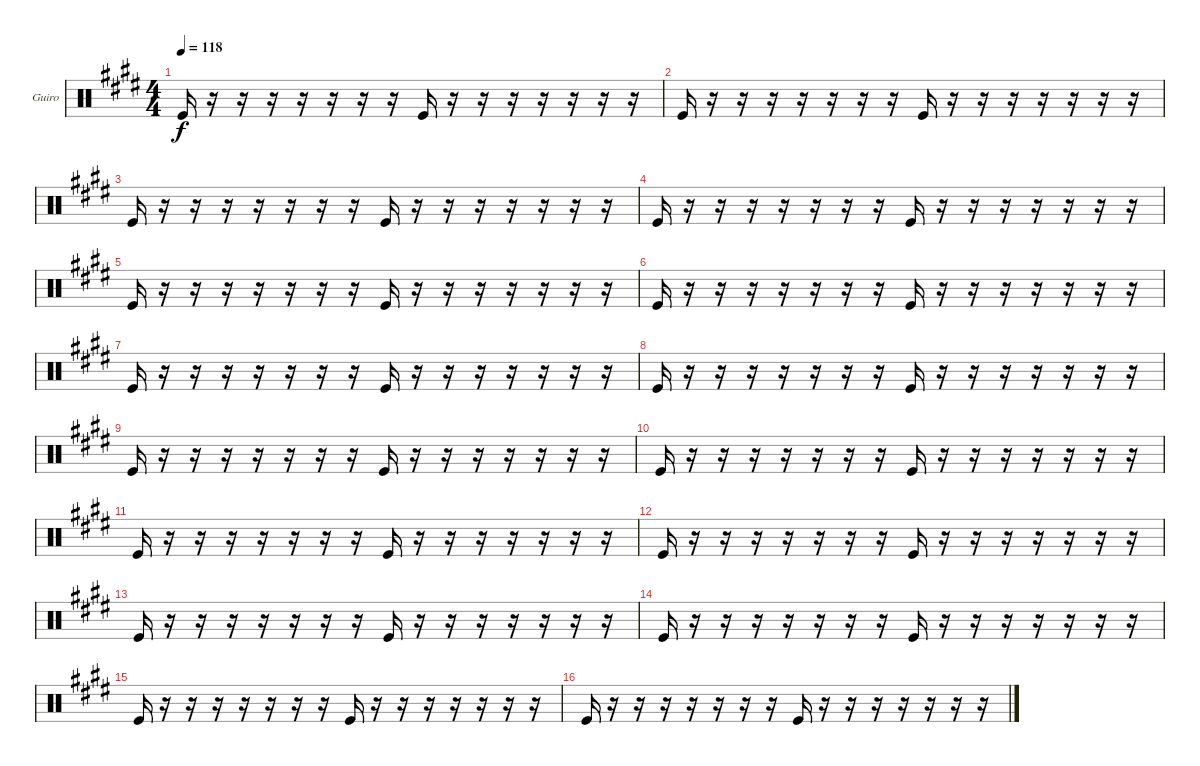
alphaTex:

\bracketExtendMode groupsimilarinstruments
\firstSystemTrackNameOrientation horizontal
\otherSystemsTrackNameOrientation horizontal
\track ("Guiro" "Guiro") {instrument percussion}
\staff {score}
\articulation defaults
\ts (4 4)
\tempo 118
\clef neutral
\ks e "Kick (hit)".16{dy f}
r.16 r.16 r.16 r.16 r.16 r.16 r.16 "Kick (hit)".16 r.16 r.16 r.16 r.16 r.16 r.16 r.16 |
"Kick (hit)".16 r.16 r.16 r.16 r.16 r.16 r.16 r.16 "Kick (hit)".16 r.16 r.16 r.16 r.16 r.16 r.16 r.16 |
"Kick (hit)".16 r.16 r.16 r.16 r.16 r.16 r.16 r.16 "Kick (hit)".16 r.16 r.16 r.16 r.16 r.16 r.16 r.16 |
"Kick (hit)".16 r.16 r.16 r.16 r.16 r.16 r.16 r.16 "Kick (hit)".16 r.16 r.16 r.16 r.16 r.16 r.16 r.16 |
"Kick (hit)".16 r.16 r.16 r.16 r.16 r.16 r.16 r.16 "Kick (hit)".16 r.16 r.16 r.16 r.16 r.16 r.16 r.16 |
"Kick (hit)".16 r.16 r.16 r.16 r.16 r.16 r.16 r.16 "Kick (hit)".16 r.16 r.16 r.16 r.16 r.16 r.16 r.16 |
"Kick (hit)".16 r.16 r.16 r.16 r.16 r.16 r.16 r.16 "Kick (hit)".16 r.16 r.16 r.16 r.16 r.16 r.16 r.16 |
"Kick (hit)".16 r.16 r.16 r.16 r.16 r.16 r.16 r.16 "Kick (hit)".16 r.16 r.16 r.16 r.16 r.16 r.16 r.16 |
"Kick (hit)".16 r.16 r.16 r.16 r.16 r.16 r.16 r.16 "Kick (hit)".16 r.16 r.16 r.16 r.16 r.16 r.16 r.16 |
"Kick (hit)".16 r.16 r.16 r.16 r.16 r.16 r.16 r.16 "Kick (hit)".16 r.16 r.16 r.16 r.16 r.16 r.16 r.16 |
"Kick (hit)".16 r.16 r.16 r.16 r.16 r.16 r.16 r.16 "Kick (hit)".16 r.16 r.16 r.16 r.16 r.16 r.16 r.16 |
"Kick (hit)".16 r.16 r.16 r.16 r.16 r.16 r.16 r.16 "Kick (hit)".16 r.16 r.16 r.16 r.16 r.16 r.16 r.16 |
"Kick (hit)".16 r.16 r.16 r.16 r.16 r.16 r.16 r.16 "Kick (hit)".16 r.16 r.16 r.16 r.16 r.16 r.16 r.16 |
"Kick (hit)".16 r.16 r.16 r.16 r.16 r.16 r.16 r.16 "Kick (hit)".16 r.16 r.16 r.16 r.16 r.16 r.16 r.16 |
"Kick (hit)".16 r.16 r.16 r.16 r.16 r.16 r.16 r.16 "Kick (hit)".16 r.16 r.16 r.16 r.16 r.16 r.16 r.16 |
"Kick (hit)".16 r.16 r.16 r.16 r.16 r.16 r.16 r.16 "Kick (hit)".16 r.16 r.16 r.16 r.16 r.16 r.16 r.16
